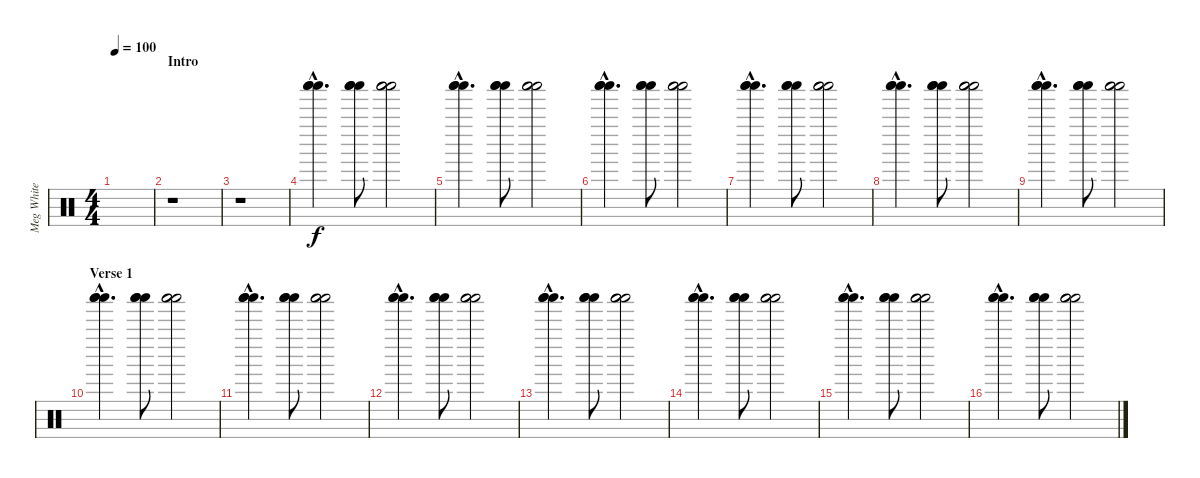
\track ("Meg White" "Meg White") {instrument percussion}
\staff {score}
\articulation defaults
\ts (4 4)
\tempo 100
\clef neutral
\ks c
|
\section ("" "Intro")
r.1 |
r.1 |
("Shaker (hit)"{hac} "Shaker (hit)"{hac} "Shaker (hit)"{hac}).4{d} ("Shaker (hit)" "Shaker (hit)" "Shaker (hit)").8 ("Shaker (hit)" "Shaker (hit)" "Shaker (hit)").2 |
("Shaker (hit)"{hac} "Shaker (hit)"{hac} "Shaker (hit)"{hac}).4{d} ("Shaker (hit)" "Shaker (hit)" "Shaker (hit)").8 ("Shaker (hit)" "Shaker (hit)" "Shaker (hit)").2 |
("Shaker (hit)"{hac} "Shaker (hit)"{hac} "Shaker (hit)"{hac}).4{d} ("Shaker (hit)" "Shaker (hit)" "Shaker (hit)").8 ("Shaker (hit)" "Shaker (hit)" "Shaker (hit)").2 |
("Shaker (hit)"{hac} "Shaker (hit)"{hac} "Shaker (hit)"{hac}).4{d} ("Shaker (hit)" "Shaker (hit)" "Shaker (hit)").8 ("Shaker (hit)" "Shaker (hit)" "Shaker (hit)").2 |
("Shaker (hit)"{hac} "Shaker (hit)"{hac} "Shaker (hit)"{hac}).4{d} ("Shaker (hit)" "Shaker (hit)" "Shaker (hit)").8 ("Shaker (hit)" "Shaker (hit)" "Shaker (hit)").2 |
("Shaker (hit)"{hac} "Shaker (hit)"{hac} "Shaker (hit)"{hac}).4{d} ("Shaker (hit)" "Shaker (hit)" "Shaker (hit)").8 ("Shaker (hit)" "Shaker (hit)" "Shaker (hit)").2 |
\section ("" "Verse 1")
("Shaker (hit)"{hac} "Shaker (hit)"{hac} "Shaker (hit)"{hac}).4{d} ("Shaker (hit)" "Shaker (hit)" "Shaker (hit)").8 ("Shaker (hit)" "Shaker (hit)" "Shaker (hit)").2 |
("Shaker (hit)"{hac} "Shaker (hit)"{hac} "Shaker (hit)"{hac}).4{d} ("Shaker (hit)" "Shaker (hit)" "Shaker (hit)").8 ("Shaker (hit)" "Shaker (hit)" "Shaker (hit)").2 |
("Shaker (hit)"{hac} "Shaker (hit)"{hac} "Shaker (hit)"{hac}).4{d} ("Shaker (hit)" "Shaker (hit)" "Shaker (hit)").8 ("Shaker (hit)" "Shaker (hit)" "Shaker (hit)").2 |
("Shaker (hit)"{hac} "Shaker (hit)"{hac} "Shaker (hit)"{hac}).4{d} ("Shaker (hit)" "Shaker (hit)" "Shaker (hit)").8 ("Shaker (hit)" "Shaker (hit)" "Shaker (hit)").2 |
("Shaker (hit)"{hac} "Shaker (hit)"{hac} "Shaker (hit)"{hac}).4{d} ("Shaker (hit)" "Shaker (hit)" "Shaker (hit)").8 ("Shaker (hit)" "Shaker (hit)" "Shaker (hit)").2 |
("Shaker (hit)"{hac} "Shaker (hit)"{hac} "Shaker (hit)"{hac}).4{d} ("Shaker (hit)" "Shaker (hit)" "Shaker (hit)").8 ("Shaker (hit)" "Shaker (hit)" "Shaker (hit)").2 |
("Shaker (hit)"{hac} "Shaker (hit)"{hac} "Shaker (hit)"{hac}).4{d} ("Shaker (hit)" "Shaker (hit)" "Shaker (hit)").8 ("Shaker (hit)" "Shaker (hit)" "Shaker (hit)").2
